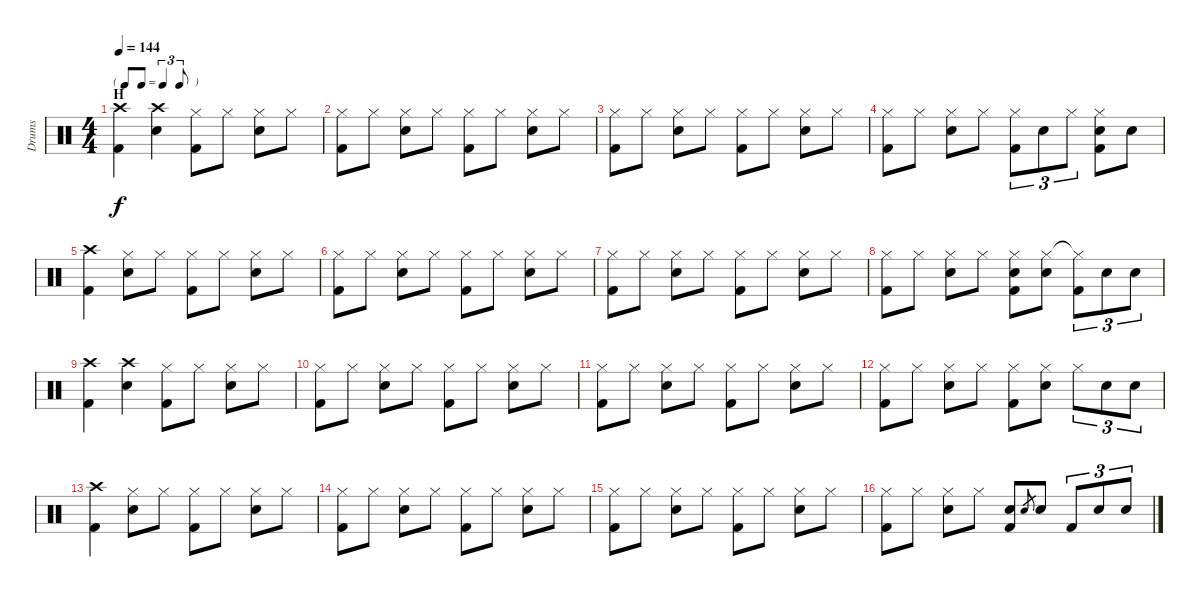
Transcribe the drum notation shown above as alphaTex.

\track ("Drums" "Drums") {instrument percussion}
\staff {score}
\articulation defaults
\ts (4 4)
\tf triplet8th
\section ("" "H")
\tempo 144
\clef neutral
\ks c
("Crash high (hit)" "Kick (hit) 2").4{dy f} ("Crash high (hit)" "Electric Snare (hit)").4 ("Hi-Hat (closed)" "Kick (hit) 2").8 "Hi-Hat (closed)".8 ("Hi-Hat (closed)" "Electric Snare (hit)").8 "Hi-Hat (closed)".8 |
("Hi-Hat (closed)" "Kick (hit) 2").8 "Hi-Hat (closed)".8 ("Hi-Hat (closed)" "Electric Snare (hit)").8 "Hi-Hat (closed)".8 ("Hi-Hat (closed)" "Kick (hit) 2").8 "Hi-Hat (closed)".8 ("Hi-Hat (closed)" "Electric Snare (hit)").8 "Hi-Hat (closed)".8 |
("Hi-Hat (closed)" "Kick (hit) 2").8 "Hi-Hat (closed)".8 ("Hi-Hat (closed)" "Electric Snare (hit)").8 "Hi-Hat (closed)".8 ("Hi-Hat (closed)" "Kick (hit) 2").8 "Hi-Hat (closed)".8 ("Hi-Hat (closed)" "Electric Snare (hit)").8 "Hi-Hat (closed)".8 |
("Hi-Hat (closed)" "Kick (hit) 2").8 "Hi-Hat (closed)".8 ("Hi-Hat (closed)" "Electric Snare (hit)").8 "Hi-Hat (closed)".8 ("Hi-Hat (closed)" "Kick (hit) 2").8{tu (3 2)} "Electric Snare (hit)".8{tu (3 2)} "Hi-Hat (closed)".8{tu (3 2)} ("Hi-Hat (closed)" "Electric Snare (hit)" "Kick (hit) 2").8 "Electric Snare (hit)".8 |
("Crash high (hit)" "Kick (hit) 2").4 ("Hi-Hat (closed)" "Electric Snare (hit)").8 "Hi-Hat (closed)".8 ("Hi-Hat (closed)" "Kick (hit) 2").8 "Hi-Hat (closed)".8 ("Hi-Hat (closed)" "Electric Snare (hit)").8 "Hi-Hat (closed)".8 |
("Hi-Hat (closed)" "Kick (hit) 2").8 "Hi-Hat (closed)".8 ("Hi-Hat (closed)" "Electric Snare (hit)").8 "Hi-Hat (closed)".8 ("Hi-Hat (closed)" "Kick (hit) 2").8 "Hi-Hat (closed)".8 ("Hi-Hat (closed)" "Electric Snare (hit)").8 "Hi-Hat (closed)".8 |
("Hi-Hat (closed)" "Kick (hit) 2").8 "Hi-Hat (closed)".8 ("Hi-Hat (closed)" "Electric Snare (hit)").8 "Hi-Hat (closed)".8 ("Hi-Hat (closed)" "Kick (hit) 2").8 "Hi-Hat (closed)".8 ("Hi-Hat (closed)" "Electric Snare (hit)").8 "Hi-Hat (closed)".8 |
("Hi-Hat (closed)" "Kick (hit) 2").8 "Hi-Hat (closed)".8 ("Hi-Hat (closed)" "Electric Snare (hit)").8 "Hi-Hat (closed)".8 ("Hi-Hat (closed)" "Electric Snare (hit)" "Kick (hit) 2").8 ("Hi-Hat (closed)" "Electric Snare (hit)").8 ("Hi-Hat (closed)"{t} "Kick (hit) 2").8{tu (3 2)} "Electric Snare (hit)".8{tu (3 2)} "Electric Snare (hit)".8{tu (3 2)} |
("Crash high (hit)" "Kick (hit) 2").4 ("Crash high (hit)" "Electric Snare (hit)").4 ("Hi-Hat (closed)" "Kick (hit) 2").8 "Hi-Hat (closed)".8 ("Hi-Hat (closed)" "Electric Snare (hit)").8 "Hi-Hat (closed)".8 |
("Hi-Hat (closed)" "Kick (hit) 2").8 "Hi-Hat (closed)".8 ("Hi-Hat (closed)" "Electric Snare (hit)").8 "Hi-Hat (closed)".8 ("Hi-Hat (closed)" "Kick (hit) 2").8 "Hi-Hat (closed)".8 ("Hi-Hat (closed)" "Electric Snare (hit)").8 "Hi-Hat (closed)".8 |
("Hi-Hat (closed)" "Kick (hit) 2").8 "Hi-Hat (closed)".8 ("Hi-Hat (closed)" "Electric Snare (hit)").8 "Hi-Hat (closed)".8 ("Hi-Hat (closed)" "Kick (hit) 2").8 "Hi-Hat (closed)".8 ("Hi-Hat (closed)" "Electric Snare (hit)").8 "Hi-Hat (closed)".8 |
("Hi-Hat (closed)" "Kick (hit) 2").8 "Hi-Hat (closed)".8 ("Hi-Hat (closed)" "Electric Snare (hit)").8 "Hi-Hat (closed)".8 ("Hi-Hat (closed)" "Kick (hit) 2").8 ("Hi-Hat (closed)" "Electric Snare (hit)").8 "Hi-Hat (closed)".8{tu (3 2)} "Electric Snare (hit)".8{tu (3 2)} "Electric Snare (hit)".8{tu (3 2)} |
("Crash high (hit)" "Kick (hit) 2").4 ("Hi-Hat (closed)" "Electric Snare (hit)").8 "Hi-Hat (closed)".8 ("Hi-Hat (closed)" "Kick (hit) 2").8 "Hi-Hat (closed)".8 ("Hi-Hat (closed)" "Electric Snare (hit)").8 "Hi-Hat (closed)".8 |
("Hi-Hat (closed)" "Kick (hit) 2").8 "Hi-Hat (closed)".8 ("Hi-Hat (closed)" "Electric Snare (hit)").8 "Hi-Hat (closed)".8 ("Hi-Hat (closed)" "Kick (hit) 2").8 "Hi-Hat (closed)".8 ("Hi-Hat (closed)" "Electric Snare (hit)").8 "Hi-Hat (closed)".8 |
("Hi-Hat (closed)" "Kick (hit) 2").8 "Hi-Hat (closed)".8 ("Hi-Hat (closed)" "Electric Snare (hit)").8 "Hi-Hat (closed)".8 ("Hi-Hat (closed)" "Kick (hit) 2").8 "Hi-Hat (closed)".8 ("Hi-Hat (closed)" "Electric Snare (hit)").8 "Hi-Hat (closed)".8 |
("Hi-Hat (closed)" "Kick (hit) 2").8 "Hi-Hat (closed)".8 ("Hi-Hat (closed)" "Electric Snare (hit)").8 "Hi-Hat (closed)".8 ("Electric Snare (hit)" "Kick (hit) 2").8 "Electric Snare (hit)".8{gr} "Electric Snare (hit)".8 "Kick (hit) 2".8{tu (3 2)} "Electric Snare (hit)".8{tu (3 2)} "Electric Snare (hit)".8{tu (3 2)}
